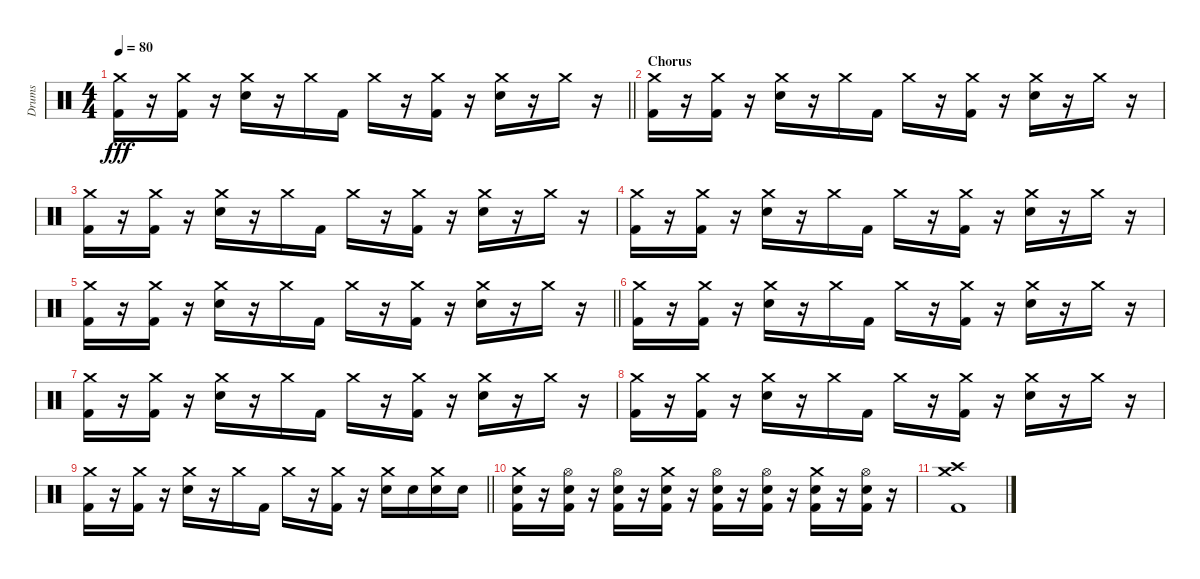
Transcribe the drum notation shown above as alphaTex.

\track ("Drums" "Drums") {instrument percussion}
\staff {score}
\articulation defaults
\ts (4 4)
\tempo 80
\clef neutral
\barLineRight lightlight
\ks c
("Crash medium (hit)" "Kick (hit) 2").16{dy fff} r.16 ("Crash medium (hit)" "Kick (hit) 2").16 r.16 ("Crash medium (hit)" "Snare (hit) 2").16 r.16 "Crash medium (hit)".16 "Kick (hit) 2".16 "Crash medium (hit)".16 r.16 ("Crash medium (hit)" "Kick (hit) 2").16 r.16 ("Crash medium (hit)" "Snare (hit) 2").16 r.16 "Crash medium (hit)".16 r.16 |
\section ("" "Chorus")
("Crash medium (hit)" "Kick (hit) 2").16 r.16 ("Crash medium (hit)" "Kick (hit) 2").16 r.16 ("Crash medium (hit)" "Snare (hit) 2").16 r.16 "Crash medium (hit)".16 "Kick (hit) 2".16 "Crash medium (hit)".16 r.16 ("Crash medium (hit)" "Kick (hit) 2").16 r.16 ("Crash medium (hit)" "Snare (hit) 2").16 r.16 "Crash medium (hit)".16 r.16 |
("Crash medium (hit)" "Kick (hit) 2").16 r.16 ("Crash medium (hit)" "Kick (hit) 2").16 r.16 ("Crash medium (hit)" "Snare (hit) 2").16 r.16 "Crash medium (hit)".16 "Kick (hit) 2".16 "Crash medium (hit)".16 r.16 ("Crash medium (hit)" "Kick (hit) 2").16 r.16 ("Crash medium (hit)" "Snare (hit) 2").16 r.16 "Crash medium (hit)".16 r.16 |
("Crash medium (hit)" "Kick (hit) 2").16 r.16 ("Crash medium (hit)" "Kick (hit) 2").16 r.16 ("Crash medium (hit)" "Snare (hit) 2").16 r.16 "Crash medium (hit)".16 "Kick (hit) 2".16 "Crash medium (hit)".16 r.16 ("Crash medium (hit)" "Kick (hit) 2").16 r.16 ("Crash medium (hit)" "Snare (hit) 2").16 r.16 "Crash medium (hit)".16 r.16 |
\barLineRight lightlight
("Crash medium (hit)" "Kick (hit) 2").16 r.16 ("Crash medium (hit)" "Kick (hit) 2").16 r.16 ("Crash medium (hit)" "Snare (hit) 2").16 r.16 "Crash medium (hit)".16 "Kick (hit) 2".16 "Crash medium (hit)".16 r.16 ("Crash medium (hit)" "Kick (hit) 2").16 r.16 ("Crash medium (hit)" "Snare (hit) 2").16 r.16 "Crash medium (hit)".16 r.16 |
("Crash medium (hit)" "Kick (hit) 2").16 r.16 ("Crash medium (hit)" "Kick (hit) 2").16 r.16 ("Crash medium (hit)" "Snare (hit) 2").16 r.16 "Crash medium (hit)".16 "Kick (hit) 2".16 "Crash medium (hit)".16 r.16 ("Crash medium (hit)" "Kick (hit) 2").16 r.16 ("Crash medium (hit)" "Snare (hit) 2").16 r.16 "Crash medium (hit)".16 r.16 |
("Crash medium (hit)" "Kick (hit) 2").16 r.16 ("Crash medium (hit)" "Kick (hit) 2").16 r.16 ("Crash medium (hit)" "Snare (hit) 2").16 r.16 "Crash medium (hit)".16 "Kick (hit) 2".16 "Crash medium (hit)".16 r.16 ("Crash medium (hit)" "Kick (hit) 2").16 r.16 ("Crash medium (hit)" "Snare (hit) 2").16 r.16 "Crash medium (hit)".16 r.16 |
("Crash medium (hit)" "Kick (hit) 2").16 r.16 ("Crash medium (hit)" "Kick (hit) 2").16 r.16 ("Crash medium (hit)" "Snare (hit) 2").16 r.16 "Crash medium (hit)".16 "Kick (hit) 2".16 "Crash medium (hit)".16 r.16 ("Crash medium (hit)" "Kick (hit) 2").16 r.16 ("Crash medium (hit)" "Snare (hit) 2").16 r.16 "Crash medium (hit)".16 r.16 |
\barLineRight lightlight
("Crash medium (hit)" "Kick (hit) 2").16 r.16 ("Crash medium (hit)" "Kick (hit) 2").16 r.16 ("Crash medium (hit)" "Snare (hit) 2").16 r.16 "Crash medium (hit)".16 "Kick (hit) 2".16 "Crash medium (hit)".16 r.16 ("Crash medium (hit)" "Kick (hit) 2").16 r.16 ("Crash medium (hit)" "Snare (hit) 2").16 "Snare (hit) 2".16 ("Crash medium (hit)" "Snare (hit) 2").16 "Snare (hit) 2".16 |
("Crash medium (hit)" "Snare (hit) 2" "Kick (hit) 2").16 r.16 ("Hi-Hat (open)" "Snare (hit) 2" "Kick (hit) 2").16 r.16 ("Hi-Hat (open)" "Snare (hit) 2" "Kick (hit) 2").16 r.16 ("Crash medium (hit)" "Snare (hit) 2" "Kick (hit) 2").16 r.16 ("Hi-Hat (open)" "Snare (hit) 2" "Kick (hit) 2").16 r.16 ("Hi-Hat (open)" "Snare (hit) 2" "Kick (hit) 2").16 r.16 ("Crash medium (hit)" "Snare (hit) 2" "Kick (hit) 2").16 r.16 ("Hi-Hat (open)" "Snare (hit) 2" "Kick (hit) 2").16 r.16 |
("Crash high (hit)" "Crash medium (hit)" "Kick (hit) 2").1
